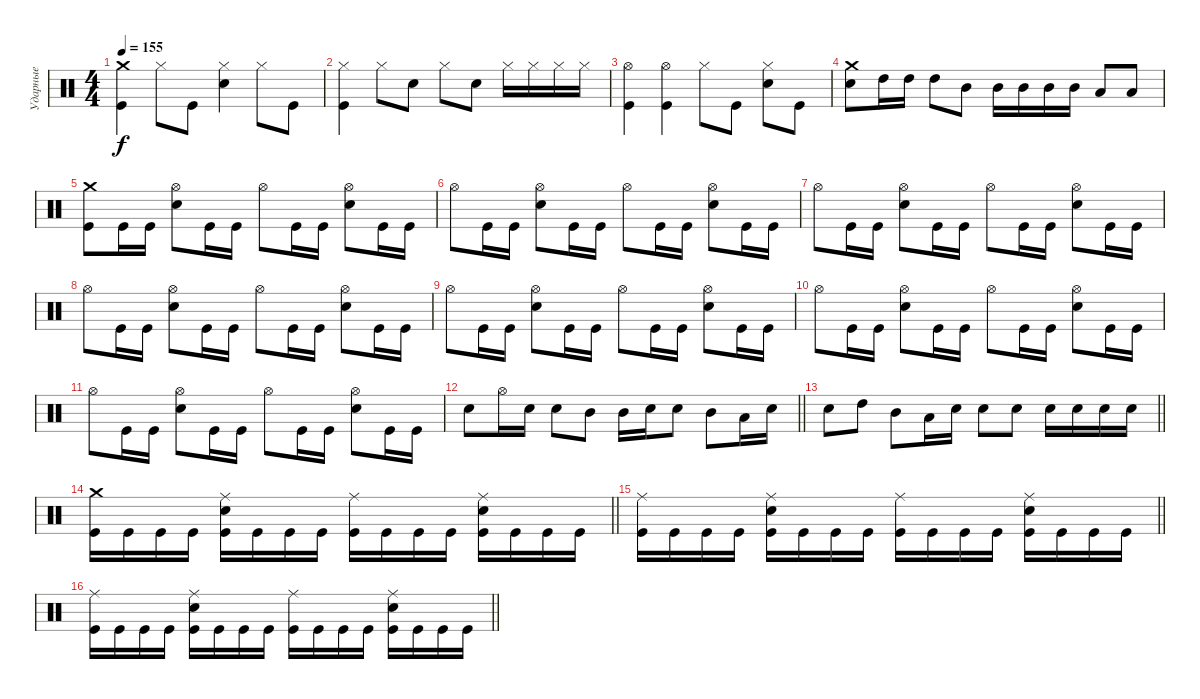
\track ("Ударные" "Ударные") {instrument percussion}
\staff {score}
\articulation defaults
\ts (4 4)
\tempo 155
\clef neutral
\ks c
("Kick (hit)" "Crash medium (hit)").4{dy f} "Hi-Hat (closed)".8 "Kick (hit)".8 ("Snare (hit) 2" "Hi-Hat (closed)").4 "Hi-Hat (closed)".8 "Kick (hit)".8 |
("Kick (hit)" "Hi-Hat (closed)").4 "Hi-Hat (closed)".8 "Snare (hit) 2".8 "Hi-Hat (closed)".8 "Snare (hit) 2".8 "Hi-Hat (closed)".16 "Hi-Hat (closed)".16 "Hi-Hat (closed)".16 "Hi-Hat (closed)".16 |
("Kick (hit)" "Hi-Hat (open)").4 ("Kick (hit)" "Hi-Hat (open)").4 "Hi-Hat (closed)".8 "Kick (hit)".8 ("Snare (hit) 2" "Hi-Hat (closed)").8 "Kick (hit)".8 |
("Snare (hit) 2" "Crash medium (hit)").8 "High Tom (hit)".16 "High Tom (hit)".16 "High Tom (hit)".8 "Mid Tom (hit)".8 "Mid Tom (hit)".16 "Mid Tom (hit)".16 "Mid Tom (hit)".16 "Mid Tom (hit)".16 "Low Tom (hit)".8 "Low Tom (hit)".8 |
("Kick (hit)" "Crash medium (hit)").8 "Kick (hit)".16 "Kick (hit)".16 ("Snare (hit) 2" "Hi-Hat (open)").8 "Kick (hit)".16 "Kick (hit)".16 "Hi-Hat (open)".8 "Kick (hit)".16 "Kick (hit)".16 ("Snare (hit) 2" "Hi-Hat (open)").8 "Kick (hit)".16 "Kick (hit)".16 |
"Hi-Hat (open)".8 "Kick (hit)".16 "Kick (hit)".16 ("Snare (hit) 2" "Hi-Hat (open)").8 "Kick (hit)".16 "Kick (hit)".16 "Hi-Hat (open)".8 "Kick (hit)".16 "Kick (hit)".16 ("Snare (hit) 2" "Hi-Hat (open)").8 "Kick (hit)".16 "Kick (hit)".16 |
"Hi-Hat (open)".8 "Kick (hit)".16 "Kick (hit)".16 ("Snare (hit) 2" "Hi-Hat (open)").8 "Kick (hit)".16 "Kick (hit)".16 "Hi-Hat (open)".8 "Kick (hit)".16 "Kick (hit)".16 ("Snare (hit) 2" "Hi-Hat (open)").8 "Kick (hit)".16 "Kick (hit)".16 |
"Hi-Hat (open)".8 "Kick (hit)".16 "Kick (hit)".16 ("Snare (hit) 2" "Hi-Hat (open)").8 "Kick (hit)".16 "Kick (hit)".16 "Hi-Hat (open)".8 "Kick (hit)".16 "Kick (hit)".16 ("Snare (hit) 2" "Hi-Hat (open)").8 "Kick (hit)".16 "Kick (hit)".16 |
"Hi-Hat (open)".8 "Kick (hit)".16 "Kick (hit)".16 ("Snare (hit) 2" "Hi-Hat (open)").8 "Kick (hit)".16 "Kick (hit)".16 "Hi-Hat (open)".8 "Kick (hit)".16 "Kick (hit)".16 ("Snare (hit) 2" "Hi-Hat (open)").8 "Kick (hit)".16 "Kick (hit)".16 |
"Hi-Hat (open)".8 "Kick (hit)".16 "Kick (hit)".16 ("Snare (hit) 2" "Hi-Hat (open)").8 "Kick (hit)".16 "Kick (hit)".16 "Hi-Hat (open)".8 "Kick (hit)".16 "Kick (hit)".16 ("Snare (hit) 2" "Hi-Hat (open)").8 "Kick (hit)".16 "Kick (hit)".16 |
"Hi-Hat (open)".8 "Kick (hit)".16 "Kick (hit)".16 ("Snare (hit) 2" "Hi-Hat (open)").8 "Kick (hit)".16 "Kick (hit)".16 "Hi-Hat (open)".8 "Kick (hit)".16 "Kick (hit)".16 ("Snare (hit) 2" "Hi-Hat (open)").8 "Kick (hit)".16 "Kick (hit)".16 |
\barLineRight lightlight "Snare (hit) 2".8 "Hi-Hat (open)".16 "Snare (hit) 2".16 "Snare (hit) 2".8 "Mid Tom (hit)".8 "Mid Tom (hit)".16 "Snare (hit) 2".16 "Snare (hit) 2".8 "Mid Tom (hit)".8 "Low Tom (hit)".16 "Snare (hit) 2".16
|
\barLineRight lightlight "Snare (hit) 2".8 "High Tom (hit)".8 "Mid Tom (hit)".8 "Low Tom (hit)".16 "Snare (hit) 2".16 "Snare (hit) 2".8 "Snare (hit) 2".8 "Snare (hit) 2".16 "Snare (hit) 2".16 "Snare (hit) 2".16 "Snare (hit) 2".16
|
\barLineRight lightlight
("Kick (hit)" "Crash medium (hit)").16 "Kick (hit)".16 "Kick (hit)".16 "Kick (hit)".16 ("Kick (hit)" "Snare (hit) 2" "Ride (middle)").16 "Kick (hit)".16 "Kick (hit)".16 "Kick (hit)".16 ("Kick (hit)" "Ride (middle)").16 "Kick (hit)".16 "Kick (hit)".16 "Kick (hit)".16 ("Kick (hit)" "Snare (hit) 2" "Ride (middle)").16 "Kick (hit)".16 "Kick (hit)".16 "Kick (hit)".16 |
\barLineRight lightlight
("Kick (hit)" "Ride (middle)").16 "Kick (hit)".16 "Kick (hit)".16 "Kick (hit)".16 ("Kick (hit)" "Snare (hit) 2" "Ride (middle)").16 "Kick (hit)".16 "Kick (hit)".16 "Kick (hit)".16 ("Kick (hit)" "Ride (middle)").16 "Kick (hit)".16 "Kick (hit)".16 "Kick (hit)".16 ("Kick (hit)" "Snare (hit) 2" "Ride (middle)").16 "Kick (hit)".16 "Kick (hit)".16 "Kick (hit)".16 |
\barLineRight lightlight
("Kick (hit)" "Ride (middle)").16 "Kick (hit)".16 "Kick (hit)".16 "Kick (hit)".16 ("Kick (hit)" "Snare (hit) 2" "Ride (middle)").16 "Kick (hit)".16 "Kick (hit)".16 "Kick (hit)".16 ("Kick (hit)" "Ride (middle)").16 "Kick (hit)".16 "Kick (hit)".16 "Kick (hit)".16 ("Kick (hit)" "Snare (hit) 2" "Ride (middle)").16 "Kick (hit)".16 "Kick (hit)".16 "Kick (hit)".16
